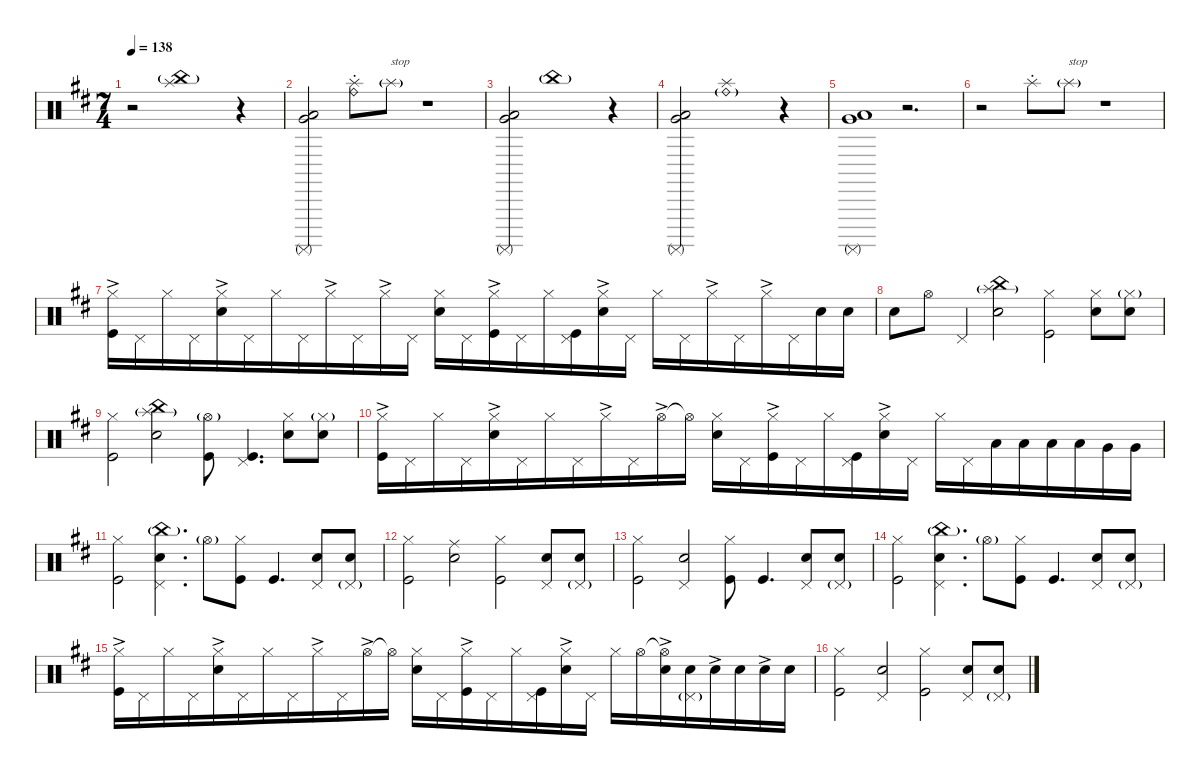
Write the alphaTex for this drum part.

\defaultSystemsLayout 4
\hideDynamics
\bracketExtendMode nobrackets
\singleTrackTrackNamePolicy hidden
\multiTrackTrackNamePolicy hidden
\firstSystemTrackNameMode fullname
\firstSystemTrackNameOrientation horizontal
\otherSystemsTrackNameOrientation horizontal
\track ("Drums" "drm.") {instrument percussion}
\staff {score}
\articulation defaults
\ts (7 4)
\beaming (8 6 4 4)
\tempo 138
\clef neutral
\ks d
r.2{dy f beam Down} ("Splash (hit)"{acc forcenatural} "China (hit)"{g acc forcenatural}).1{beam Down} r.4{beam Down} |
("Very Low Tom (hit)"{acc forcenatural} "Low Floor Tom (hit)"{acc forcenatural} "Surdo (mute)"{acc forcenatural}).2{beam Up} ("Splash (hit)"{st acc forcenatural} "Ride (bell)"{acc forcenatural}).8{beam Down} "Splash (hit)"{g acc forcenatural}.8{txt "stop" dy pp beam Down} r.1{beam Down} |
("Very Low Tom (hit)"{acc forcenatural} "Low Floor Tom (hit)"{acc forcenatural} "Surdo (mute)"{acc forcenatural}).2{dy f beam Up} "China (hit)"{g acc forcenatural}.1{dy mf beam Down} r.4{beam Down} |
("Very Low Tom (hit)"{acc forcenatural} "Low Floor Tom (hit)"{acc forcenatural} "Surdo (mute)"{acc forcenatural}).2{dy f beam Up} ("Splash (hit)"{acc forcenatural} "Ride (bell)"{g acc forcenatural}).1{beam Down} r.4{beam Down} |
("Very Low Tom (hit)"{acc forcenatural} "Low Floor Tom (hit)"{acc forcenatural} "Surdo (mute)"{acc forcenatural}).1{beam Up} r.2{d beam Up} |
r.2{beam Down} "Splash (hit)"{st acc forcenatural}.8{dy fff beam Down} "Splash (hit)"{g acc forcenatural}.8{txt "stop" dy pp beam Down} r.1{beam Down} |
("Hi-Hat (closed)"{ac acc forcenatural} "Kick (hit)"{acc forcenatural}).16{dy fff beam Down} "Pedal Hi-Hat (hit)"{acc forcenatural}.16{beam Down} "Hi-Hat (closed)"{acc forcenatural}.16{beam Down} "Pedal Hi-Hat (hit)"{acc forcenatural}.16{beam Down} ("Hi-Hat (closed)"{ac acc forcenatural} "Snare (hit) 2"{acc forcenatural}).16{beam Down} "Pedal Hi-Hat (hit)"{acc forcenatural}.16{beam Down} "Hi-Hat (closed)"{acc forcenatural}.16{beam Down} "Pedal Hi-Hat (hit)"{acc forcenatural}.16{beam Down} "Hi-Hat (closed)"{ac acc forcenatural}.16{dy ff beam Down} "Pedal Hi-Hat (hit)"{acc forcenatural}.16{dy fff beam Down} "Hi-Hat (closed)"{ac acc forcenatural}.16{dy ff beam Down} "Pedal Hi-Hat (hit)"{acc forcenatural}.16{dy fff beam Down} ("Hi-Hat (closed)"{acc forcenatural} "Snare (hit) 2"{acc forcenatural}).16{beam Down} "Pedal Hi-Hat (hit)"{acc forcenatural}.16{beam Down} ("Hi-Hat (closed)"{ac acc forcenatural} "Kick (hit)"{acc forcenatural}).16{beam Down} "Pedal Hi-Hat (hit)"{acc forcenatural}.16{beam Down} "Hi-Hat (closed)"{acc forcenatural}.16{beam Down} ("Pedal Hi-Hat (hit)"{acc forcenatural} "Kick (hit)"{acc forcenatural}).16{beam Down} ("Hi-Hat (closed)"{ac acc forcenatural} "Snare (hit) 2"{acc forcenatural}).16{beam Down} "Pedal Hi-Hat (hit)"{acc forcenatural}.16{beam Down} "Hi-Hat (closed)"{acc forcenatural}.16{beam Down} "Pedal Hi-Hat (hit)"{acc forcenatural}.16{beam Down} "Hi-Hat (closed)"{ac acc forcenatural}.16{dy ff beam Down} "Pedal Hi-Hat (hit)"{acc forcenatural}.16{dy fff beam Down} "Hi-Hat (closed)"{ac acc forcenatural}.16{dy ff beam Down} "Pedal Hi-Hat (hit)"{acc forcenatural}.16{dy fff beam Down} "Snare (hit) 2"{acc forcenatural}.16{beam Down} "Snare (hit) 2"{acc forcenatural}.16{beam Down} |
"Snare (hit) 2"{acc forcenatural}.8{beam Down} "Hi-Hat (open)"{acc forcenatural}.8{beam Down} "Pedal Hi-Hat (hit)"{acc forcenatural}.4{beam Up} ("China (hit)"{acc forcenatural} "Splash (hit)"{g acc forcenatural} "Snare (hit) 2"{acc forcenatural}).2{beam Down} ("Hi-Hat (closed)"{acc forcenatural} "Kick (hit)"{acc forcenatural}).2{beam Down} ("Hi-Hat (closed)"{acc forcenatural} "Snare (hit) 2"{acc forcenatural}).8{beam Down} ("Hi-Hat (closed)"{g acc forcenatural} "Snare (hit) 2"{acc forcenatural}).8{beam Down} |
("Hi-Hat (closed)"{acc forcenatural} "Kick (hit)"{acc forcenatural}).2{beam Down} ("China (hit)"{acc forcenatural} "Splash (hit)"{g acc forcenatural} "Snare (hit) 2"{acc forcenatural}).2{beam Down} ("Hi-Hat (open)"{g acc forcenatural} "Kick (hit)"{acc forcenatural}).8{beam Down} ("Pedal Hi-Hat (hit)"{acc forcenatural} "Kick (hit)"{acc forcenatural}).4{d beam Up} ("Hi-Hat (closed)"{acc forcenatural} "Snare (hit) 2"{acc forcenatural}).8{beam Down} ("Hi-Hat (closed)"{g acc forcenatural} "Snare (hit) 2"{acc forcenatural}).8{beam Down} |
("Hi-Hat (closed)"{ac acc forcenatural} "Kick (hit)"{acc forcenatural}).16{beam Down} "Pedal Hi-Hat (hit)"{acc forcenatural}.16{beam Down} "Hi-Hat (closed)"{acc forcenatural}.16{beam Down} "Pedal Hi-Hat (hit)"{acc forcenatural}.16{beam Down} ("Hi-Hat (closed)"{ac acc forcenatural} "Snare (hit) 2"{acc forcenatural}).16{beam Down} "Pedal Hi-Hat (hit)"{acc forcenatural}.16{beam Down} "Hi-Hat (closed)"{acc forcenatural}.16{beam Down} "Pedal Hi-Hat (hit)"{acc forcenatural}.16{beam Down} "Hi-Hat (closed)"{ac acc forcenatural}.16{dy ff beam Down} "Pedal Hi-Hat (hit)"{acc forcenatural}.16{dy fff beam Down} "Hi-Hat (open)"{ac acc forcenatural}.16{dy f beam Down} "Hi-Hat (open)"{t acc forcenatural}.16{beam Down} ("Hi-Hat (closed)"{acc forcenatural} "Snare (hit) 2"{acc forcenatural}).16{dy fff beam Down} "Pedal Hi-Hat (hit)"{acc forcenatural}.16{beam Down} ("Hi-Hat (closed)"{ac acc forcenatural} "Kick (hit)"{acc forcenatural}).16{beam Down} "Pedal Hi-Hat (hit)"{acc forcenatural}.16{beam Down} "Hi-Hat (closed)"{acc forcenatural}.16{beam Down} ("Pedal Hi-Hat (hit)"{acc forcenatural} "Kick (hit)"{acc forcenatural}).16{beam Down} ("Hi-Hat (closed)"{ac acc forcenatural} "Snare (hit) 2"{acc forcenatural}).16{beam Down} "Pedal Hi-Hat (hit)"{acc forcenatural}.16{beam Down} "Hi-Hat (closed)"{acc forcenatural}.16{beam Down} "Pedal Hi-Hat (hit)"{acc forcenatural}.16{beam Down} "Low Tom (hit)"{acc forcenatural}.16{dy ff beam Down} "Low Tom (hit)"{acc forcenatural}.16{beam Down} "Low Tom (hit)"{acc forcenatural}.16{beam Down} "Low Tom (hit)"{acc forcenatural}.16{beam Down} "Very Low Tom (hit)"{acc forcenatural}.16{beam Down} "Very Low Tom (hit)"{acc forcenatural}.16{beam Down} |
("Hi-Hat (closed)"{acc forcenatural} "Kick (hit)"{acc forcenatural}).2{dy fff beam Down} ("Pedal Hi-Hat (hit)"{acc forcenatural} "China (hit)"{g acc forcenatural} "Snare (hit) 2"{acc forcenatural}).4{d beam Down} "Hi-Hat (open)"{g acc forcenatural}.8{dy ff beam Down} ("Hi-Hat (closed)"{acc forcenatural} "Kick (hit)"{acc forcenatural}).8{dy fff beam Down} "Kick (hit)"{acc forcenatural}.4{d beam Up} ("Pedal Hi-Hat (hit)"{acc forcenatural} "Snare (hit) 2"{acc forcenatural}).8{beam Up} ("Pedal Hi-Hat (hit)"{g acc forcenatural} "Snare (hit) 2"{acc forcenatural}).8{beam Up} |
("Hi-Hat (closed)"{acc forcenatural} "Kick (hit)"{acc forcenatural}).2{beam Down} ("Ride (middle)"{acc forcenatural} "Snare (hit) 2"{acc forcenatural}).2{beam Down} ("Hi-Hat (closed)"{acc forcenatural} "Kick (hit)"{acc forcenatural}).2{beam Down} ("Pedal Hi-Hat (hit)"{acc forcenatural} "Snare (hit) 2"{acc forcenatural}).8{beam Up} ("Pedal Hi-Hat (hit)"{g acc forcenatural} "Snare (hit) 2"{acc forcenatural}).8{beam Up} |
("Hi-Hat (closed)"{acc forcenatural} "Kick (hit)"{acc forcenatural}).2{beam Down} ("Pedal Hi-Hat (hit)"{acc forcenatural} "Snare (hit) 2"{acc forcenatural}).2{beam Up} ("Hi-Hat (closed)"{acc forcenatural} "Kick (hit)"{acc forcenatural}).8{beam Down} "Kick (hit)"{acc forcenatural}.4{d beam Up} ("Pedal Hi-Hat (hit)"{acc forcenatural} "Snare (hit) 2"{acc forcenatural}).8{beam Up} ("Pedal Hi-Hat (hit)"{g acc forcenatural} "Snare (hit) 2"{acc forcenatural}).8{beam Up} |
("Hi-Hat (closed)"{acc forcenatural} "Kick (hit)"{acc forcenatural}).2{beam Down} ("Pedal Hi-Hat (hit)"{acc forcenatural} "China (hit)"{g acc forcenatural} "Snare (hit) 2"{acc forcenatural}).4{d beam Down} "Hi-Hat (open)"{g acc forcenatural}.8{dy ff beam Down} ("Hi-Hat (closed)"{acc forcenatural} "Kick (hit)"{acc forcenatural}).8{dy fff beam Down} "Kick (hit)"{acc forcenatural}.4{d beam Up} ("Pedal Hi-Hat (hit)"{acc forcenatural} "Snare (hit) 2"{acc forcenatural}).8{beam Up} ("Pedal Hi-Hat (hit)"{g acc forcenatural} "Snare (hit) 2"{acc forcenatural}).8{beam Up} |
("Hi-Hat (closed)"{ac acc forcenatural} "Kick (hit)"{acc forcenatural}).16{beam Down} "Pedal Hi-Hat (hit)"{acc forcenatural}.16{beam Down} "Hi-Hat (closed)"{acc forcenatural}.16{beam Down} "Pedal Hi-Hat (hit)"{acc forcenatural}.16{beam Down} ("Hi-Hat (closed)"{ac acc forcenatural} "Snare (hit) 2"{acc forcenatural}).16{beam Down} "Pedal Hi-Hat (hit)"{acc forcenatural}.16{beam Down} "Hi-Hat (closed)"{acc forcenatural}.16{beam Down} "Pedal Hi-Hat (hit)"{acc forcenatural}.16{beam Down} "Hi-Hat (closed)"{ac acc forcenatural}.16{dy ff beam Down} "Pedal Hi-Hat (hit)"{acc forcenatural}.16{dy fff beam Down} "Hi-Hat (open)"{ac acc forcenatural}.16{dy f beam Down} "Hi-Hat (open)"{t acc forcenatural}.16{beam Down} ("Hi-Hat (closed)"{acc forcenatural} "Snare (hit) 2"{acc forcenatural}).16{dy fff beam Down} "Pedal Hi-Hat (hit)"{acc forcenatural}.16{beam Down} ("Hi-Hat (closed)"{ac acc forcenatural} "Kick (hit)"{acc forcenatural}).16{beam Down} "Pedal Hi-Hat (hit)"{acc forcenatural}.16{beam Down} "Hi-Hat (closed)"{acc forcenatural}.16{beam Down} ("Pedal Hi-Hat (hit)"{acc forcenatural} "Kick (hit)"{acc forcenatural}).16{beam Down} ("Hi-Hat (closed)"{ac acc forcenatural} "Snare (hit) 2"{acc forcenatural}).16{beam Down} "Pedal Hi-Hat (hit)"{acc forcenatural}.16{beam Down} "Hi-Hat (closed)"{acc forcenatural}.16{beam Down} "Hi-Hat (open)"{acc forcenatural}.16{dy ff beam Down} ("Hi-Hat (open)"{t acc forcenatural} "Snare (hit) 2"{ac acc forcenatural}).16{dy f beam Down} ("Pedal Hi-Hat (hit)"{g acc forcenatural} "Snare (hit) 2"{acc forcenatural}).16{dy ff beam Down} "Snare (hit) 2"{ac acc forcenatural}.16{beam Down} "Snare (hit) 2"{acc forcenatural}.16{beam Down} "Snare (hit) 2"{ac acc forcenatural}.16{beam Down} "Snare (hit) 2"{acc forcenatural}.16{beam Down} |
("Hi-Hat (closed)"{acc forcenatural} "Kick (hit)"{acc forcenatural}).2{dy fff beam Down} ("Pedal Hi-Hat (hit)"{acc forcenatural} "Snare (hit) 2"{acc forcenatural}).2{beam Up} ("Hi-Hat (closed)"{acc forcenatural} "Kick (hit)"{acc forcenatural}).2{beam Down} ("Pedal Hi-Hat (hit)"{acc forcenatural} "Snare (hit) 2"{acc forcenatural}).8{beam Up} ("Pedal Hi-Hat (hit)"{g acc forcenatural} "Snare (hit) 2"{acc forcenatural}).8{beam Up}
